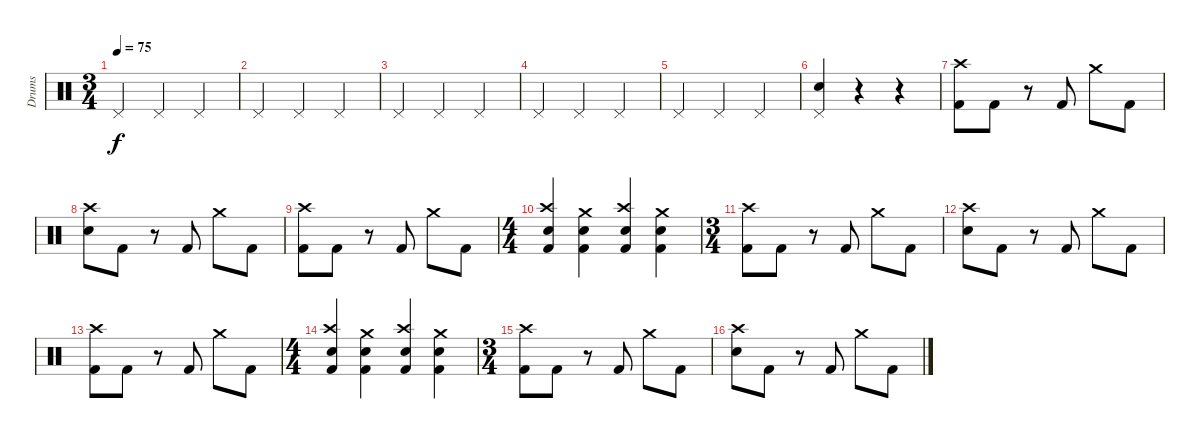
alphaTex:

\track ("Drums" "Drums") {instrument percussion}
\staff {score}
\articulation defaults
\ts (3 4)
\tempo 75
\clef neutral
\ks c "Pedal Hi-Hat (hit)".4{dy f} "Pedal Hi-Hat (hit)".4 "Pedal Hi-Hat (hit)".4
|
"Pedal Hi-Hat (hit)".4 "Pedal Hi-Hat (hit)".4 "Pedal Hi-Hat (hit)".4 |
"Pedal Hi-Hat (hit)".4 "Pedal Hi-Hat (hit)".4 "Pedal Hi-Hat (hit)".4 |
"Pedal Hi-Hat (hit)".4 "Pedal Hi-Hat (hit)".4 "Pedal Hi-Hat (hit)".4 |
"Pedal Hi-Hat (hit)".4 "Pedal Hi-Hat (hit)".4 "Pedal Hi-Hat (hit)".4 |
("Pedal Hi-Hat (hit)" "Electric Snare (hit)").4 r.4 r.4 |
("Crash high (hit)" "Kick (hit) 2").8 "Kick (hit) 2".8 r.8 "Kick (hit) 2".8 "Crash medium (hit)".8 "Kick (hit) 2".8 |
("Crash high (hit)" "Electric Snare (hit)").8 "Kick (hit) 2".8 r.8 "Kick (hit) 2".8 "Crash medium (hit)".8 "Kick (hit) 2".8 |
("Crash high (hit)" "Kick (hit) 2").8 "Kick (hit) 2".8 r.8 "Kick (hit) 2".8 "Crash medium (hit)".8 "Kick (hit) 2".8 |
\ts (4 4)
("Crash high (hit)" "Electric Snare (hit)" "Kick (hit) 2").4 ("Crash medium (hit)" "Electric Snare (hit)" "Kick (hit) 2").4 ("Crash high (hit)" "Electric Snare (hit)" "Kick (hit) 2").4 ("Crash medium (hit)" "Electric Snare (hit)" "Kick (hit) 2").4 |
\ts (3 4)
("Crash high (hit)" "Kick (hit) 2").8 "Kick (hit) 2".8 r.8 "Kick (hit) 2".8 "Crash medium (hit)".8 "Kick (hit) 2".8 |
("Crash high (hit)" "Electric Snare (hit)").8 "Kick (hit) 2".8 r.8 "Kick (hit) 2".8 "Crash medium (hit)".8 "Kick (hit) 2".8 |
("Crash high (hit)" "Kick (hit) 2").8 "Kick (hit) 2".8 r.8 "Kick (hit) 2".8 "Crash medium (hit)".8 "Kick (hit) 2".8 |
\ts (4 4)
("Crash high (hit)" "Electric Snare (hit)" "Kick (hit) 2").4 ("Crash medium (hit)" "Electric Snare (hit)" "Kick (hit) 2").4 ("Crash high (hit)" "Electric Snare (hit)" "Kick (hit) 2").4 ("Crash medium (hit)" "Electric Snare (hit)" "Kick (hit) 2").4 |
\ts (3 4)
("Crash high (hit)" "Kick (hit) 2").8 "Kick (hit) 2".8 r.8 "Kick (hit) 2".8 "Crash medium (hit)".8 "Kick (hit) 2".8 |
("Crash high (hit)" "Electric Snare (hit)").8 "Kick (hit) 2".8 r.8 "Kick (hit) 2".8 "Crash medium (hit)".8 "Kick (hit) 2".8
